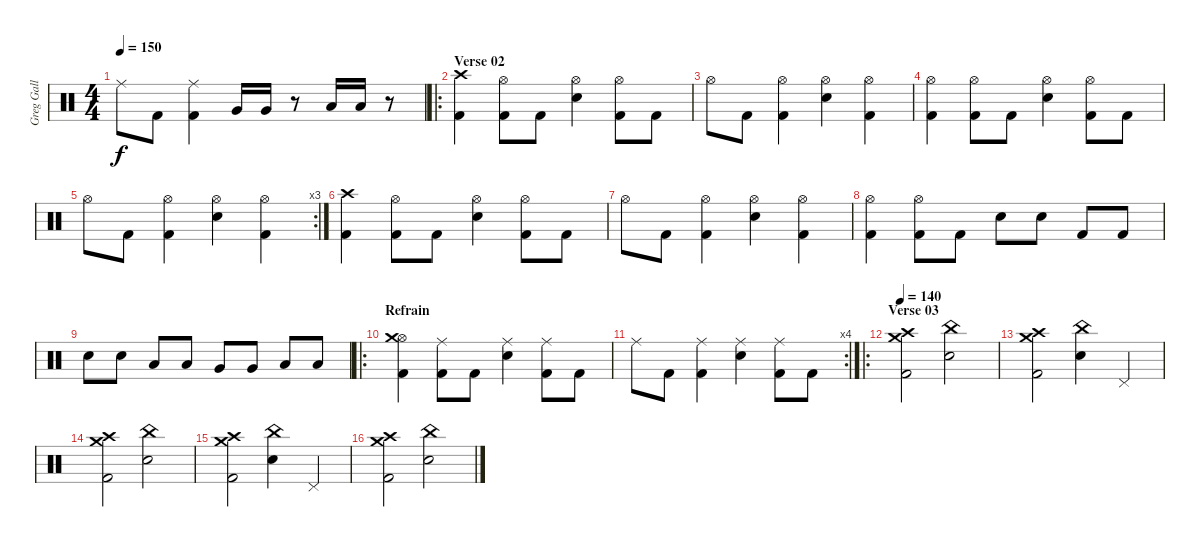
\track ("Greg Gall" "Greg Gall") {instrument percussion}
\staff {score}
\articulation defaults
\ts (4 4)
\tempo 150
\clef neutral
\ks c "Ride (middle)".8{dy f} "Kick (hit) 2".8
("Ride (middle)" "Kick (hit) 2").4 "Very Low Tom (hit)".16 "Very Low Tom (hit)".16 r.8 "Low Floor Tom (hit)".16 "Low Floor Tom (hit)".16 r.8 |
\ro
\section ("" "Verse 02")
("Crash high (hit)" "Kick (hit) 2").4 ("Hi-Hat (open)" "Kick (hit) 2").8 "Kick (hit) 2".8 ("Hi-Hat (open)" "Electric Snare (hit)").4 ("Hi-Hat (open)" "Kick (hit) 2").8 "Kick (hit) 2".8 |
"Hi-Hat (open)".8 "Kick (hit) 2".8 ("Hi-Hat (open)" "Kick (hit) 2").4 ("Hi-Hat (open)" "Electric Snare (hit)").4 ("Hi-Hat (open)" "Kick (hit) 2").4 |
("Hi-Hat (open)" "Kick (hit) 2").4 ("Hi-Hat (open)" "Kick (hit) 2").8 "Kick (hit) 2".8 ("Hi-Hat (open)" "Electric Snare (hit)").4 ("Hi-Hat (open)" "Kick (hit) 2").8 "Kick (hit) 2".8 |
\rc 3 "Hi-Hat (open)".8 "Kick (hit) 2".8
("Hi-Hat (open)" "Kick (hit) 2").4 ("Hi-Hat (open)" "Electric Snare (hit)").4 ("Hi-Hat (open)" "Kick (hit) 2").4 |
("Crash high (hit)" "Kick (hit) 2").4 ("Hi-Hat (open)" "Kick (hit) 2").8 "Kick (hit) 2".8 ("Hi-Hat (open)" "Electric Snare (hit)").4 ("Hi-Hat (open)" "Kick (hit) 2").8 "Kick (hit) 2".8 |
"Hi-Hat (open)".8 "Kick (hit) 2".8 ("Hi-Hat (open)" "Kick (hit) 2").4 ("Hi-Hat (open)" "Electric Snare (hit)").4 ("Hi-Hat (open)" "Kick (hit) 2").4 |
("Hi-Hat (open)" "Kick (hit) 2").4 ("Hi-Hat (open)" "Kick (hit) 2").8 "Kick (hit) 2".8 "Electric Snare (hit)".8 "Electric Snare (hit)".8 "Kick (hit) 2".8 "Kick (hit) 2".8 |
"Electric Snare (hit)".8 "Electric Snare (hit)".8 "Low Tom (hit)".8 "Low Tom (hit)".8 "Very Low Tom (hit)".8 "Very Low Tom (hit)".8 "Low Floor Tom (hit)".8 "Low Floor Tom (hit)".8 |
\ro
\section ("" "Refrain")
("Hi-Hat (open)" "Crash medium (hit)" "Kick (hit) 2").4 ("Ride (middle)" "Kick (hit) 2").8 "Kick (hit) 2".8 ("Ride (middle)" "Electric Snare (hit)").4 ("Ride (middle)" "Kick (hit) 2").8 "Kick (hit) 2".8 |
\rc 4 "Ride (middle)".8 "Kick (hit) 2".8
("Ride (middle)" "Kick (hit) 2").4 ("Ride (middle)" "Electric Snare (hit)").4 ("Ride (middle)" "Kick (hit) 2").8 "Kick (hit) 2".8 |
\ro
\section ("" "Verse 03")
\tempo 140
("Crash high (hit)" "Crash medium (hit)" "Kick (hit) 2").2 ("China (hit)" "Electric Snare (hit)").2 |
("Crash high (hit)" "Crash medium (hit)" "Kick (hit) 2").2 ("China (hit)" "Electric Snare (hit)").4 "Pedal Hi-Hat (hit)".4 |
("Crash high (hit)" "Crash medium (hit)" "Kick (hit) 2").2 ("China (hit)" "Electric Snare (hit)").2 |
("Crash high (hit)" "Crash medium (hit)" "Kick (hit) 2").2 ("China (hit)" "Electric Snare (hit)").4 "Pedal Hi-Hat (hit)".4 |
("Crash high (hit)" "Crash medium (hit)" "Kick (hit) 2").2 ("China (hit)" "Electric Snare (hit)").2
